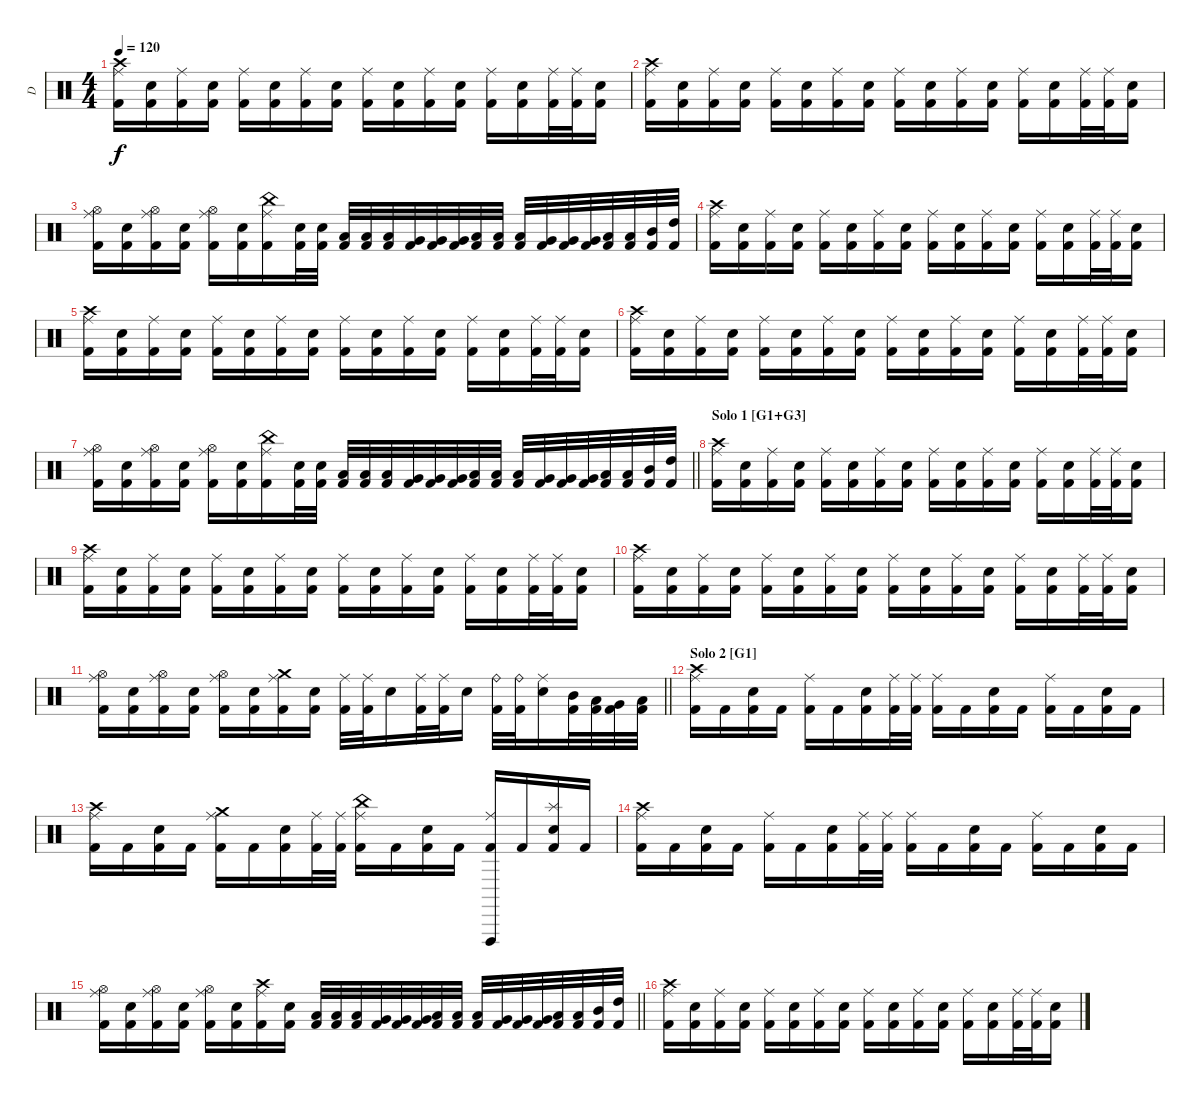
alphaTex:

\track ("D" "D") {instrument percussion}
\staff {score}
\articulation defaults
\ts (4 4)
\tempo 120
\clef neutral
\ks c
("Crash high (hit)" "Ride (middle)" "Kick (hit) 2").16{dy f} ("Electric Snare (hit)" "Kick (hit) 2").16 ("Ride (middle)" "Kick (hit) 2").16 ("Electric Snare (hit)" "Kick (hit) 2").16 ("Ride (middle)" "Kick (hit) 2").16 ("Electric Snare (hit)" "Kick (hit) 2").16 ("Ride (middle)" "Kick (hit) 2").16 ("Electric Snare (hit)" "Kick (hit) 2").16 ("Ride (middle)" "Kick (hit) 2").16 ("Electric Snare (hit)" "Kick (hit) 2").16 ("Ride (middle)" "Kick (hit) 2").16 ("Electric Snare (hit)" "Kick (hit) 2").16 ("Ride (middle)" "Kick (hit) 2").16 ("Electric Snare (hit)" "Kick (hit) 2").16 ("Ride (middle)" "Kick (hit) 2").32 ("Ride (middle)" "Kick (hit) 2").32 ("Electric Snare (hit)" "Kick (hit) 2").16 |
("Crash high (hit)" "Ride (middle)" "Kick (hit) 2").16 ("Electric Snare (hit)" "Kick (hit) 2").16 ("Ride (middle)" "Kick (hit) 2").16 ("Electric Snare (hit)" "Kick (hit) 2").16 ("Ride (middle)" "Kick (hit) 2").16 ("Electric Snare (hit)" "Kick (hit) 2").16 ("Ride (middle)" "Kick (hit) 2").16 ("Electric Snare (hit)" "Kick (hit) 2").16 ("Ride (middle)" "Kick (hit) 2").16 ("Electric Snare (hit)" "Kick (hit) 2").16 ("Ride (middle)" "Kick (hit) 2").16 ("Electric Snare (hit)" "Kick (hit) 2").16 ("Ride (middle)" "Kick (hit) 2").16 ("Electric Snare (hit)" "Kick (hit) 2").16 ("Ride (middle)" "Kick (hit) 2").32 ("Ride (middle)" "Kick (hit) 2").32 ("Electric Snare (hit)" "Kick (hit) 2").16 |
("Hi-Hat (open)" "Ride (middle)" "Kick (hit) 2").16 ("Electric Snare (hit)" "Kick (hit) 2").16 ("Hi-Hat (open)" "Ride (middle)" "Kick (hit) 2").16 ("Electric Snare (hit)" "Kick (hit) 2").16 ("Hi-Hat (open)" "Ride (middle)" "Kick (hit) 2").16 ("Electric Snare (hit)" "Kick (hit) 2").16 ("China (hit)" "Ride (middle)" "Kick (hit) 2").16 ("Electric Snare (hit)" "Kick (hit) 2").32 ("Electric Snare (hit)" "Kick (hit) 2").32 ("Low Tom (hit)" "Kick (hit) 2").32 ("Low Tom (hit)" "Kick (hit) 2").32 ("Low Tom (hit)" "Kick (hit) 2").32 ("Very Low Tom (hit)" "Kick (hit) 2").32 ("Very Low Tom (hit)" "Kick (hit) 2").32 ("Very Low Tom (hit)" "Kick (hit) 2").32 ("Low Floor Tom (hit)" "Kick (hit) 2").32 ("Low Floor Tom (hit)" "Kick (hit) 2").32 ("Low Floor Tom (hit)" "Kick (hit) 2").32 ("Very Low Tom (hit)" "Kick (hit) 2").32 ("Very Low Tom (hit)" "Kick (hit) 2").32 ("Very Low Tom (hit)" "Kick (hit) 2").32 ("Low Tom (hit)" "Kick (hit) 2").32 ("Low Tom (hit)" "Kick (hit) 2").32 ("Mid Tom (hit)" "Kick (hit) 2").32 ("High Tom (hit)" "Kick (hit) 2").32 |
("Crash high (hit)" "Ride (middle)" "Kick (hit) 2").16 ("Electric Snare (hit)" "Kick (hit) 2").16 ("Ride (middle)" "Kick (hit) 2").16 ("Electric Snare (hit)" "Kick (hit) 2").16 ("Ride (middle)" "Kick (hit) 2").16 ("Electric Snare (hit)" "Kick (hit) 2").16 ("Ride (middle)" "Kick (hit) 2").16 ("Electric Snare (hit)" "Kick (hit) 2").16 ("Ride (middle)" "Kick (hit) 2").16 ("Electric Snare (hit)" "Kick (hit) 2").16 ("Ride (middle)" "Kick (hit) 2").16 ("Electric Snare (hit)" "Kick (hit) 2").16 ("Ride (middle)" "Kick (hit) 2").16 ("Electric Snare (hit)" "Kick (hit) 2").16 ("Ride (middle)" "Kick (hit) 2").32 ("Ride (middle)" "Kick (hit) 2").32 ("Electric Snare (hit)" "Kick (hit) 2").16 |
("Crash high (hit)" "Ride (middle)" "Kick (hit) 2").16 ("Electric Snare (hit)" "Kick (hit) 2").16 ("Ride (middle)" "Kick (hit) 2").16 ("Electric Snare (hit)" "Kick (hit) 2").16 ("Ride (middle)" "Kick (hit) 2").16 ("Electric Snare (hit)" "Kick (hit) 2").16 ("Ride (middle)" "Kick (hit) 2").16 ("Electric Snare (hit)" "Kick (hit) 2").16 ("Ride (middle)" "Kick (hit) 2").16 ("Electric Snare (hit)" "Kick (hit) 2").16 ("Ride (middle)" "Kick (hit) 2").16 ("Electric Snare (hit)" "Kick (hit) 2").16 ("Ride (middle)" "Kick (hit) 2").16 ("Electric Snare (hit)" "Kick (hit) 2").16 ("Ride (middle)" "Kick (hit) 2").32 ("Ride (middle)" "Kick (hit) 2").32 ("Electric Snare (hit)" "Kick (hit) 2").16 |
("Crash high (hit)" "Ride (middle)" "Kick (hit) 2").16 ("Electric Snare (hit)" "Kick (hit) 2").16 ("Ride (middle)" "Kick (hit) 2").16 ("Electric Snare (hit)" "Kick (hit) 2").16 ("Ride (middle)" "Kick (hit) 2").16 ("Electric Snare (hit)" "Kick (hit) 2").16 ("Ride (middle)" "Kick (hit) 2").16 ("Electric Snare (hit)" "Kick (hit) 2").16 ("Ride (middle)" "Kick (hit) 2").16 ("Electric Snare (hit)" "Kick (hit) 2").16 ("Ride (middle)" "Kick (hit) 2").16 ("Electric Snare (hit)" "Kick (hit) 2").16 ("Ride (middle)" "Kick (hit) 2").16 ("Electric Snare (hit)" "Kick (hit) 2").16 ("Ride (middle)" "Kick (hit) 2").32 ("Ride (middle)" "Kick (hit) 2").32 ("Electric Snare (hit)" "Kick (hit) 2").16 |
\barLineRight lightlight
("Hi-Hat (open)" "Ride (middle)" "Kick (hit) 2").16 ("Electric Snare (hit)" "Kick (hit) 2").16 ("Hi-Hat (open)" "Ride (middle)" "Kick (hit) 2").16 ("Electric Snare (hit)" "Kick (hit) 2").16 ("Hi-Hat (open)" "Ride (middle)" "Kick (hit) 2").16 ("Electric Snare (hit)" "Kick (hit) 2").16 ("China (hit)" "Ride (middle)" "Kick (hit) 2").16 ("Electric Snare (hit)" "Kick (hit) 2").32 ("Electric Snare (hit)" "Kick (hit) 2").32 ("Low Tom (hit)" "Kick (hit) 2").32 ("Low Tom (hit)" "Kick (hit) 2").32 ("Low Tom (hit)" "Kick (hit) 2").32 ("Very Low Tom (hit)" "Kick (hit) 2").32 ("Very Low Tom (hit)" "Kick (hit) 2").32 ("Very Low Tom (hit)" "Kick (hit) 2").32 ("Low Floor Tom (hit)" "Kick (hit) 2").32 ("Low Floor Tom (hit)" "Kick (hit) 2").32 ("Low Floor Tom (hit)" "Kick (hit) 2").32 ("Very Low Tom (hit)" "Kick (hit) 2").32 ("Very Low Tom (hit)" "Kick (hit) 2").32 ("Very Low Tom (hit)" "Kick (hit) 2").32 ("Low Tom (hit)" "Kick (hit) 2").32 ("Low Tom (hit)" "Kick (hit) 2").32 ("Mid Tom (hit)" "Kick (hit) 2").32 ("High Tom (hit)" "Kick (hit) 2").32 |
\section ("" "Solo 1 [G1+G3]")
("Crash high (hit)" "Ride (middle)" "Kick (hit) 2").16 ("Electric Snare (hit)" "Kick (hit) 2").16 ("Ride (middle)" "Kick (hit) 2").16 ("Electric Snare (hit)" "Kick (hit) 2").16 ("Ride (middle)" "Kick (hit) 2").16 ("Electric Snare (hit)" "Kick (hit) 2").16 ("Ride (middle)" "Kick (hit) 2").16 ("Electric Snare (hit)" "Kick (hit) 2").16 ("Ride (middle)" "Kick (hit) 2").16 ("Electric Snare (hit)" "Kick (hit) 2").16 ("Ride (middle)" "Kick (hit) 2").16 ("Electric Snare (hit)" "Kick (hit) 2").16 ("Ride (middle)" "Kick (hit) 2").16 ("Electric Snare (hit)" "Kick (hit) 2").16 ("Ride (middle)" "Kick (hit) 2").32 ("Ride (middle)" "Kick (hit) 2").32 ("Electric Snare (hit)" "Kick (hit) 2").16 |
("Crash high (hit)" "Ride (middle)" "Kick (hit) 2").16 ("Electric Snare (hit)" "Kick (hit) 2").16 ("Ride (middle)" "Kick (hit) 2").16 ("Electric Snare (hit)" "Kick (hit) 2").16 ("Ride (middle)" "Kick (hit) 2").16 ("Electric Snare (hit)" "Kick (hit) 2").16 ("Ride (middle)" "Kick (hit) 2").16 ("Electric Snare (hit)" "Kick (hit) 2").16 ("Ride (middle)" "Kick (hit) 2").16 ("Electric Snare (hit)" "Kick (hit) 2").16 ("Ride (middle)" "Kick (hit) 2").16 ("Electric Snare (hit)" "Kick (hit) 2").16 ("Ride (middle)" "Kick (hit) 2").16 ("Electric Snare (hit)" "Kick (hit) 2").16 ("Ride (middle)" "Kick (hit) 2").32 ("Ride (middle)" "Kick (hit) 2").32 ("Electric Snare (hit)" "Kick (hit) 2").16 |
("Crash high (hit)" "Ride (middle)" "Kick (hit) 2").16 ("Electric Snare (hit)" "Kick (hit) 2").16 ("Ride (middle)" "Kick (hit) 2").16 ("Electric Snare (hit)" "Kick (hit) 2").16 ("Ride (middle)" "Kick (hit) 2").16 ("Electric Snare (hit)" "Kick (hit) 2").16 ("Ride (middle)" "Kick (hit) 2").16 ("Electric Snare (hit)" "Kick (hit) 2").16 ("Ride (middle)" "Kick (hit) 2").16 ("Electric Snare (hit)" "Kick (hit) 2").16 ("Ride (middle)" "Kick (hit) 2").16 ("Electric Snare (hit)" "Kick (hit) 2").16 ("Ride (middle)" "Kick (hit) 2").16 ("Electric Snare (hit)" "Kick (hit) 2").16 ("Ride (middle)" "Kick (hit) 2").32 ("Ride (middle)" "Kick (hit) 2").32 ("Electric Snare (hit)" "Kick (hit) 2").16 |
\barLineRight lightlight
("Hi-Hat (open)" "Ride (middle)" "Kick (hit) 2").16 ("Electric Snare (hit)" "Kick (hit) 2").16 ("Hi-Hat (open)" "Ride (middle)" "Kick (hit) 2").16 ("Electric Snare (hit)" "Kick (hit) 2").16 ("Hi-Hat (open)" "Ride (middle)" "Kick (hit) 2").16 ("Electric Snare (hit)" "Kick (hit) 2").16 ("Crash medium (hit)" "Ride (middle)" "Kick (hit) 2").16 ("Electric Snare (hit)" "Kick (hit) 2").16 ("Ride (middle)" "Kick (hit) 2").32 ("Ride (middle)" "Kick (hit) 2").32 "Electric Snare (hit)".16 ("Ride (middle)" "Kick (hit) 2").32 ("Ride (middle)" "Kick (hit) 2").32 "Electric Snare (hit)".16 ("Ride (bell)" "Kick (hit) 2").32 ("Ride (bell)" "Kick (hit) 2").32 ("Ride (middle)" "Electric Snare (hit)").16 ("Mid Tom (hit)" "Kick (hit) 2").32 ("Low Tom (hit)" "Kick (hit) 2").32 ("Very Low Tom (hit)" "Kick (hit) 2").32 ("Low Floor Tom (hit)" "Kick (hit) 2").32 |
\section ("" "Solo 2 [G1]")
("Crash high (hit)" "Ride (middle)" "Kick (hit) 2").16 "Kick (hit) 2".16 ("Electric Snare (hit)" "Kick (hit) 2").16 "Kick (hit) 2".16 ("Ride (middle)" "Kick (hit) 2").16 "Kick (hit) 2".16 ("Electric Snare (hit)" "Kick (hit) 2").16 ("Ride (middle)" "Kick (hit) 2").32 ("Ride (middle)" "Kick (hit) 2").32 ("Ride (middle)" "Kick (hit) 2").16 "Kick (hit) 2".16 ("Electric Snare (hit)" "Kick (hit) 2").16 "Kick (hit) 2".16 ("Ride (middle)" "Kick (hit) 2").16 "Kick (hit) 2".16 ("Electric Snare (hit)" "Kick (hit) 2").16 "Kick (hit) 2".16 |
("Crash high (hit)" "Ride (middle)" "Kick (hit) 2").16 "Kick (hit) 2".16 ("Electric Snare (hit)" "Kick (hit) 2").16 "Kick (hit) 2".16 ("Crash medium (hit)" "Ride (middle)" "Kick (hit) 2").16 "Kick (hit) 2".16 ("Electric Snare (hit)" "Kick (hit) 2").16 ("Ride (middle)" "Kick (hit) 2").32 ("Ride (middle)" "Kick (hit) 2").32 ("China (hit)" "Ride (middle)" "Kick (hit) 2").16 "Kick (hit) 2".16 ("Electric Snare (hit)" "Kick (hit) 2").16 "Kick (hit) 2".16 ("Vibraslap (hit)" "Ride (middle)" "Kick (hit) 2").16 "Kick (hit) 2".16 ("Splash (hit)" "Electric Snare (hit)" "Kick (hit) 2").16 "Kick (hit) 2".16 |
("Crash high (hit)" "Ride (middle)" "Kick (hit) 2").16 "Kick (hit) 2".16 ("Electric Snare (hit)" "Kick (hit) 2").16 "Kick (hit) 2".16 ("Ride (middle)" "Kick (hit) 2").16 "Kick (hit) 2".16 ("Electric Snare (hit)" "Kick (hit) 2").16 ("Ride (middle)" "Kick (hit) 2").32 ("Ride (middle)" "Kick (hit) 2").32 ("Ride (middle)" "Kick (hit) 2").16 "Kick (hit) 2".16 ("Electric Snare (hit)" "Kick (hit) 2").16 "Kick (hit) 2".16 ("Ride (middle)" "Kick (hit) 2").16 "Kick (hit) 2".16 ("Electric Snare (hit)" "Kick (hit) 2").16 "Kick (hit) 2".16 |
\barLineRight lightlight
("Hi-Hat (open)" "Ride (middle)" "Kick (hit) 2").16 ("Electric Snare (hit)" "Kick (hit) 2").16 ("Hi-Hat (open)" "Ride (middle)" "Kick (hit) 2").16 ("Electric Snare (hit)" "Kick (hit) 2").16 ("Hi-Hat (open)" "Ride (middle)" "Kick (hit) 2").16 ("Electric Snare (hit)" "Kick (hit) 2").16 ("Crash high (hit)" "Ride (middle)" "Kick (hit) 2").16 ("Electric Snare (hit)" "Kick (hit) 2").16 ("Low Tom (hit)" "Kick (hit) 2").32 ("Low Tom (hit)" "Kick (hit) 2").32 ("Low Tom (hit)" "Kick (hit) 2").32 ("Very Low Tom (hit)" "Kick (hit) 2").32 ("Very Low Tom (hit)" "Kick (hit) 2").32 ("Very Low Tom (hit)" "Kick (hit) 2").32 ("Low Floor Tom (hit)" "Kick (hit) 2").32 ("Low Floor Tom (hit)" "Kick (hit) 2").32 ("Low Floor Tom (hit)" "Kick (hit) 2").32 ("Very Low Tom (hit)" "Kick (hit) 2").32 ("Very Low Tom (hit)" "Kick (hit) 2").32 ("Very Low Tom (hit)" "Kick (hit) 2").32 ("Low Tom (hit)" "Kick (hit) 2").32 ("Low Tom (hit)" "Kick (hit) 2").32 ("Mid Tom (hit)" "Kick (hit) 2").32 ("High Tom (hit)" "Kick (hit) 2").32 |
("Crash high (hit)" "Ride (middle)" "Kick (hit) 2").16 ("Electric Snare (hit)" "Kick (hit) 2").16 ("Ride (middle)" "Kick (hit) 2").16 ("Electric Snare (hit)" "Kick (hit) 2").16 ("Ride (middle)" "Kick (hit) 2").16 ("Electric Snare (hit)" "Kick (hit) 2").16 ("Ride (middle)" "Kick (hit) 2").16 ("Electric Snare (hit)" "Kick (hit) 2").16 ("Ride (middle)" "Kick (hit) 2").16 ("Electric Snare (hit)" "Kick (hit) 2").16 ("Ride (middle)" "Kick (hit) 2").16 ("Electric Snare (hit)" "Kick (hit) 2").16 ("Ride (middle)" "Kick (hit) 2").16 ("Electric Snare (hit)" "Kick (hit) 2").16 ("Ride (middle)" "Kick (hit) 2").32 ("Ride (middle)" "Kick (hit) 2").32 ("Electric Snare (hit)" "Kick (hit) 2").16
